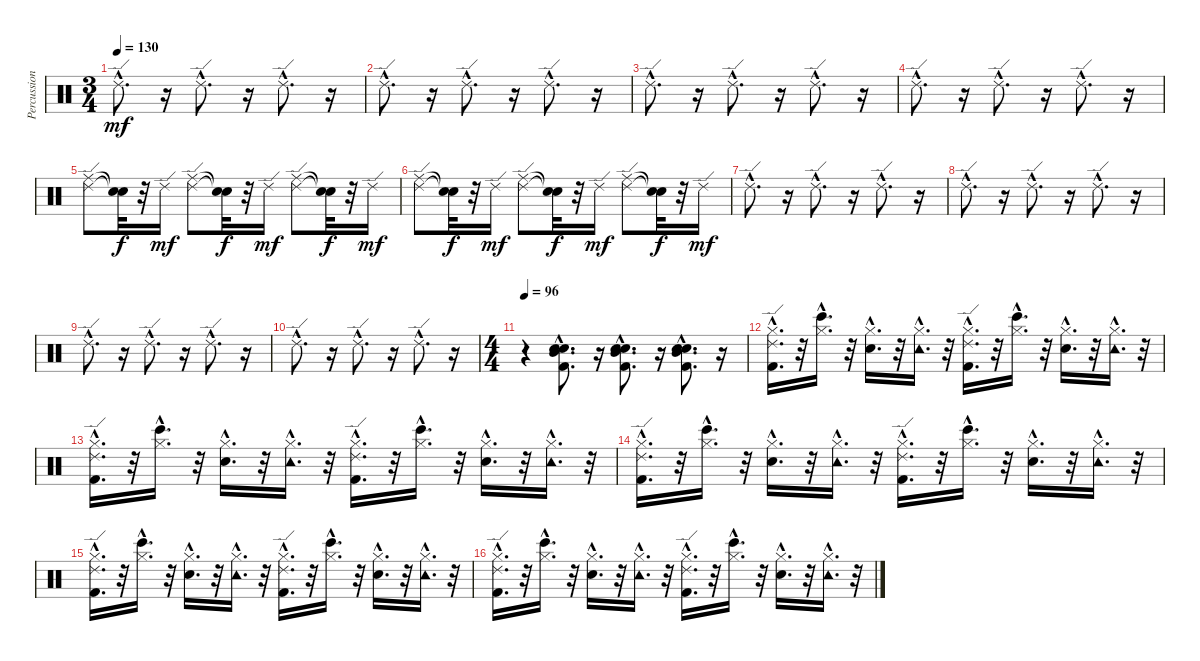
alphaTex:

\track ("Percussion (Channel 10)" "Percussion") {instrument percussion}
\staff {score}
\articulation defaults
\ts (3 4)
\tempo 130
\clef neutral
\ks c "Ride (edge) 2"{hac}.8{d dy mf}
r.16 "Ride (edge) 2"{hac}.8{d} r.16 "Ride (edge) 2"{hac}.8{d} r.16 |
"Ride (edge) 2"{hac}.8{d} r.16 "Ride (edge) 2"{hac}.8{d} r.16 "Ride (edge) 2"{hac}.8{d} r.16 |
"Ride (edge) 2"{hac}.8{d} r.16 "Ride (edge) 2"{hac}.8{d} r.16 "Ride (edge) 2"{hac}.8{d} r.16 |
"Ride (edge) 2"{hac}.8{d} r.16 "Ride (edge) 2"{hac}.8{d} r.16 "Ride (edge) 2"{hac}.8{d} r.16 |
("Ride (edge) 2" "Ride (middle)").8 ("Snare (hit)"{t} "Snare (hit)"{t}).32{dy f} r.32 "Ride (edge) 2".16{dy mf} ("Ride (edge) 2" "Ride (middle)").8 ("Snare (hit)"{t} "Snare (hit)"{t}).32{dy f} r.32 "Ride (edge) 2".16{dy mf} ("Ride (edge) 2" "Ride (middle)").8 ("Snare (hit)"{t} "Snare (hit)"{t}).32{dy f} r.32 "Ride (edge) 2".16{dy mf} |
("Ride (edge) 2" "Ride (middle)").8 ("Snare (hit)"{t} "Snare (hit)"{t}).32{dy f} r.32 "Ride (edge) 2".16{dy mf} ("Ride (edge) 2" "Ride (middle)").8 ("Snare (hit)"{t} "Snare (hit)"{t}).32{dy f} r.32 "Ride (edge) 2".16{dy mf} ("Ride (edge) 2" "Ride (middle)").8 ("Snare (hit)"{t} "Snare (hit)"{t}).32{dy f} r.32 "Ride (edge) 2".16{dy mf} |
"Ride (edge) 2"{hac}.8{d} r.16 "Ride (edge) 2"{hac}.8{d} r.16 "Ride (edge) 2"{hac}.8{d} r.16 |
"Ride (edge) 2"{hac}.8{d} r.16 "Ride (edge) 2"{hac}.8{d} r.16 "Ride (edge) 2"{hac}.8{d} r.16 |
"Ride (edge) 2"{hac}.8{d} r.16 "Ride (edge) 2"{hac}.8{d} r.16 "Ride (edge) 2"{hac}.8{d} r.16 |
"Ride (edge) 2"{hac}.8{d} r.16 "Ride (edge) 2"{hac}.8{d} r.16 "Ride (edge) 2"{hac}.8{d} r.16 |
\ts (4 4)
\tempo 96
r.4 ("Snare (hit) 2"{hac} "Kick (hit) 2"{hac} "Electric Snare (hit)"{hac} "Mid Tom (hit)"{hac}).8{d} r.16 ("Snare (hit) 2"{hac} "Kick (hit) 2"{hac} "Electric Snare (hit)"{hac} "Mid Tom (hit)"{hac}).8{d} r.16 ("Mid Tom (hit)"{hac} "Electric Snare (hit)"{hac} "Kick (hit) 2"{hac} "Snare (hit) 2"{hac}).8{d} r.16 |
("Hi-Hat (closed)"{hac} "Kick (hit) 2"{hac} "Ride (edge) 2"{hac}).16{d} r.32 ("Hi-Hat (closed)"{hac} "Bongo High (hit)"{hac}).16{d} r.32 ("Hi-Hat (closed)"{hac} "Snare (hit) 2"{hac}).16{d} r.32 ("Hi-Hat (closed)"{hac} "Tambourine (hit)"{hac}).16{d} r.32 ("Hi-Hat (closed)"{hac} "Kick (hit) 2"{hac} "Ride (edge) 2"{hac}).16{d} r.32 ("Hi-Hat (closed)"{hac} "Bongo High (hit)"{hac}).16{d} r.32 ("Hi-Hat (closed)"{hac} "Snare (hit) 2"{hac}).16{d} r.32 ("Hi-Hat (closed)"{hac} "Tambourine (hit)"{hac}).16{d} r.32 |
("Ride (edge) 2"{hac} "Kick (hit) 2"{hac} "Hi-Hat (closed)"{hac}).16{d} r.32 ("Bongo High (hit)"{hac} "Hi-Hat (closed)"{hac}).16{d} r.32 ("Snare (hit) 2"{hac} "Hi-Hat (closed)"{hac}).16{d} r.32 ("Tambourine (hit)"{hac} "Hi-Hat (closed)"{hac}).16{d} r.32 ("Ride (edge) 2"{hac} "Kick (hit) 2"{hac} "Hi-Hat (closed)"{hac}).16{d} r.32 ("Bongo High (hit)"{hac} "Hi-Hat (closed)"{hac}).16{d} r.32 ("Snare (hit) 2"{hac} "Hi-Hat (closed)"{hac}).16{d} r.32 ("Tambourine (hit)"{hac} "Hi-Hat (closed)"{hac}).16{d} r.32 |
("Ride (edge) 2"{hac} "Kick (hit) 2"{hac} "Hi-Hat (closed)"{hac}).16{d} r.32 ("Bongo High (hit)"{hac} "Hi-Hat (closed)"{hac}).16{d} r.32 ("Snare (hit) 2"{hac} "Hi-Hat (closed)"{hac}).16{d} r.32 ("Tambourine (hit)"{hac} "Hi-Hat (closed)"{hac}).16{d} r.32 ("Ride (edge) 2"{hac} "Kick (hit) 2"{hac} "Hi-Hat (closed)"{hac}).16{d} r.32 ("Bongo High (hit)"{hac} "Hi-Hat (closed)"{hac}).16{d} r.32 ("Snare (hit) 2"{hac} "Hi-Hat (closed)"{hac}).16{d} r.32 ("Tambourine (hit)"{hac} "Hi-Hat (closed)"{hac}).16{d} r.32 |
("Hi-Hat (closed)"{hac} "Kick (hit) 2"{hac} "Ride (edge) 2"{hac}).16{d} r.32 ("Hi-Hat (closed)"{hac} "Bongo High (hit)"{hac}).16{d} r.32 ("Hi-Hat (closed)"{hac} "Snare (hit) 2"{hac}).16{d} r.32 ("Hi-Hat (closed)"{hac} "Tambourine (hit)"{hac}).16{d} r.32 ("Hi-Hat (closed)"{hac} "Kick (hit) 2"{hac} "Ride (edge) 2"{hac}).16{d} r.32 ("Hi-Hat (closed)"{hac} "Bongo High (hit)"{hac}).16{d} r.32 ("Hi-Hat (closed)"{hac} "Snare (hit) 2"{hac}).16{d} r.32 ("Hi-Hat (closed)"{hac} "Tambourine (hit)"{hac}).16{d} r.32 |
("Ride (edge) 2"{hac} "Kick (hit) 2"{hac} "Hi-Hat (closed)"{hac}).16{d} r.32 ("Bongo High (hit)"{hac} "Hi-Hat (closed)"{hac}).16{d} r.32 ("Snare (hit) 2"{hac} "Hi-Hat (closed)"{hac}).16{d} r.32 ("Tambourine (hit)"{hac} "Hi-Hat (closed)"{hac}).16{d} r.32 ("Ride (edge) 2"{hac} "Kick (hit) 2"{hac} "Hi-Hat (closed)"{hac}).16{d} r.32 ("Bongo High (hit)"{hac} "Hi-Hat (closed)"{hac}).16{d} r.32 ("Snare (hit) 2"{hac} "Hi-Hat (closed)"{hac}).16{d} r.32 ("Tambourine (hit)"{hac} "Hi-Hat (closed)"{hac}).16{d} r.32
